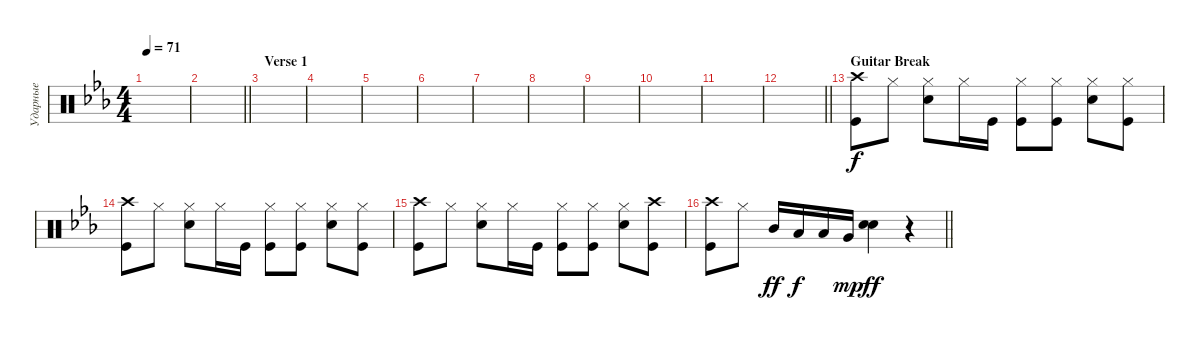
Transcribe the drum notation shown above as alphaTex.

\track ("Ударные" "Ударные") {instrument percussion}
\staff {score}
\articulation defaults
\ts (4 4)
\tempo 71
\clef neutral
\ks cminor
|
\barLineRight lightlight
|
\section ("" "Verse 1")
|
|
|
|
|
|
|
|
|
\barLineRight lightlight
|
\section ("" "Guitar Break")
("Kick (hit)" "Crash high (hit)").8 "Hi-Hat (closed)".8 ("Snare (hit) 2" "Hi-Hat (closed)").8 "Hi-Hat (closed)".16 "Kick (hit)".16 ("Hi-Hat (closed)" "Kick (hit)").8 ("Hi-Hat (closed)" "Kick (hit)").8 ("Hi-Hat (closed)" "Snare (hit) 2").8 ("Hi-Hat (closed)" "Kick (hit)").8 |
("Kick (hit)" "Crash high (hit)").8 "Hi-Hat (closed)".8 ("Snare (hit) 2" "Hi-Hat (closed)").8 "Hi-Hat (closed)".16 "Kick (hit)".16 ("Hi-Hat (closed)" "Kick (hit)").8 ("Hi-Hat (closed)" "Kick (hit)").8 ("Hi-Hat (closed)" "Snare (hit) 2").8 ("Hi-Hat (closed)" "Kick (hit)").8 |
("Kick (hit)" "Crash high (hit)").8 "Hi-Hat (closed)".8 ("Snare (hit) 2" "Hi-Hat (closed)").8 "Hi-Hat (closed)".16 "Kick (hit)".16 ("Hi-Hat (closed)" "Kick (hit)").8 ("Hi-Hat (closed)" "Kick (hit)").8 ("Hi-Hat (closed)" "Snare (hit) 2").8 ("Crash high (hit)" "Kick (hit)").8 |
\barLineRight lightlight
("Kick (hit)" "Crash high (hit)").8 "Hi-Hat (closed)".8 "Mid Tom (hit)".16{dy ff} "Low Tom (hit)".16{dy f} "Low Tom (hit)".16 "Very Low Tom (hit)".16{dy mp} ("Snare (hit) 2" "Snare (hit) 2").4{bd 120 dy ff} r.4
